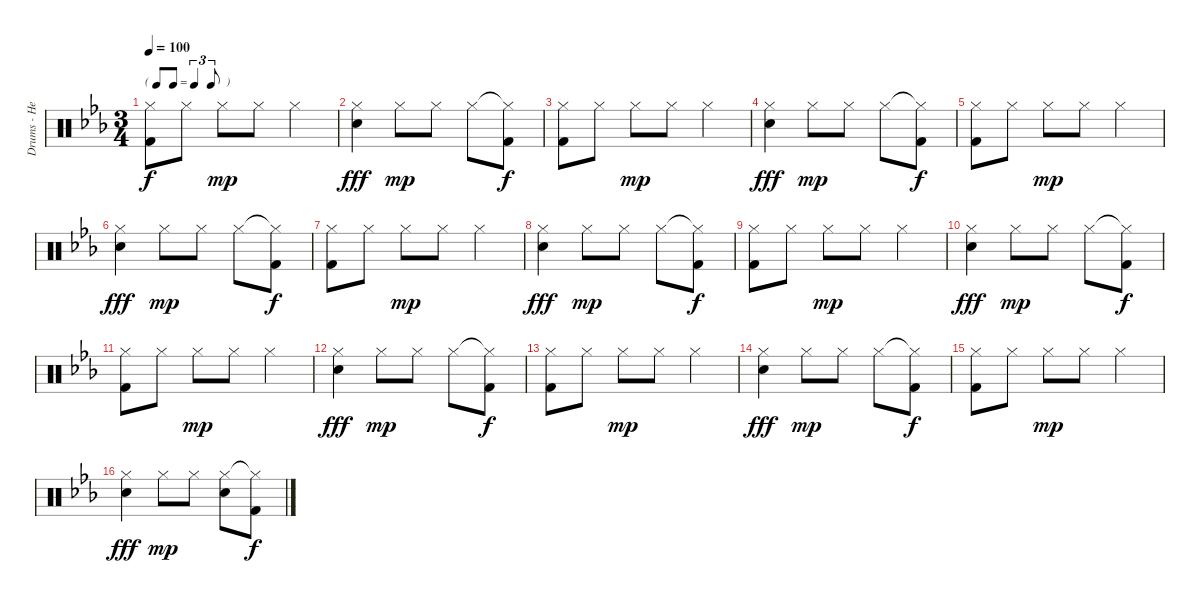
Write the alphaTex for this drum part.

\track ("Drums - Henley" "Drums - He") {instrument percussion}
\staff {score}
\articulation defaults
\ts (3 4)
\tf triplet8th
\tempo 100
\clef neutral
\ks eb
("Hi-Hat (closed)" "Kick (hit) 2").8{dy f} "Hi-Hat (closed)".8 "Hi-Hat (closed)".8{dy mp} "Hi-Hat (closed)".8 "Hi-Hat (closed)".4 |
("Hi-Hat (closed)" "Electric Snare (hit)").4{dy fff} "Hi-Hat (closed)".8{dy mp} "Hi-Hat (closed)".8 "Hi-Hat (closed)".8 ("Hi-Hat (closed)"{t} "Kick (hit) 2").8{dy f} |
("Hi-Hat (closed)" "Kick (hit) 2").8 "Hi-Hat (closed)".8 "Hi-Hat (closed)".8{dy mp} "Hi-Hat (closed)".8 "Hi-Hat (closed)".4 |
("Hi-Hat (closed)" "Electric Snare (hit)").4{dy fff} "Hi-Hat (closed)".8{dy mp} "Hi-Hat (closed)".8 "Hi-Hat (closed)".8 ("Hi-Hat (closed)"{t} "Kick (hit) 2").8{dy f} |
("Hi-Hat (closed)" "Kick (hit) 2").8 "Hi-Hat (closed)".8 "Hi-Hat (closed)".8{dy mp} "Hi-Hat (closed)".8 "Hi-Hat (closed)".4 |
("Hi-Hat (closed)" "Electric Snare (hit)").4{dy fff} "Hi-Hat (closed)".8{dy mp} "Hi-Hat (closed)".8 "Hi-Hat (closed)".8 ("Hi-Hat (closed)"{t} "Kick (hit) 2").8{dy f} |
("Hi-Hat (closed)" "Kick (hit) 2").8 "Hi-Hat (closed)".8 "Hi-Hat (closed)".8{dy mp} "Hi-Hat (closed)".8 "Hi-Hat (closed)".4 |
("Hi-Hat (closed)" "Electric Snare (hit)").4{dy fff} "Hi-Hat (closed)".8{dy mp} "Hi-Hat (closed)".8 "Hi-Hat (closed)".8 ("Hi-Hat (closed)"{t} "Kick (hit) 2").8{dy f} |
("Hi-Hat (closed)" "Kick (hit) 2").8 "Hi-Hat (closed)".8 "Hi-Hat (closed)".8{dy mp} "Hi-Hat (closed)".8 "Hi-Hat (closed)".4 |
("Hi-Hat (closed)" "Electric Snare (hit)").4{dy fff} "Hi-Hat (closed)".8{dy mp} "Hi-Hat (closed)".8 "Hi-Hat (closed)".8 ("Hi-Hat (closed)"{t} "Kick (hit) 2").8{dy f} |
("Hi-Hat (closed)" "Kick (hit) 2").8 "Hi-Hat (closed)".8 "Hi-Hat (closed)".8{dy mp} "Hi-Hat (closed)".8 "Hi-Hat (closed)".4 |
("Hi-Hat (closed)" "Electric Snare (hit)").4{dy fff} "Hi-Hat (closed)".8{dy mp} "Hi-Hat (closed)".8 "Hi-Hat (closed)".8 ("Hi-Hat (closed)"{t} "Kick (hit) 2").8{dy f} |
("Hi-Hat (closed)" "Kick (hit) 2").8 "Hi-Hat (closed)".8 "Hi-Hat (closed)".8{dy mp} "Hi-Hat (closed)".8 "Hi-Hat (closed)".4 |
("Hi-Hat (closed)" "Electric Snare (hit)").4{dy fff} "Hi-Hat (closed)".8{dy mp} "Hi-Hat (closed)".8 "Hi-Hat (closed)".8 ("Hi-Hat (closed)"{t} "Kick (hit) 2").8{dy f} |
("Hi-Hat (closed)" "Kick (hit) 2").8 "Hi-Hat (closed)".8 "Hi-Hat (closed)".8{dy mp} "Hi-Hat (closed)".8 "Hi-Hat (closed)".4 |
("Hi-Hat (closed)" "Electric Snare (hit)").4{dy fff} "Hi-Hat (closed)".8{dy mp} "Hi-Hat (closed)".8 ("Hi-Hat (closed)" "Electric Snare (hit)").8 ("Hi-Hat (closed)"{t} "Kick (hit) 2").8{dy f}
